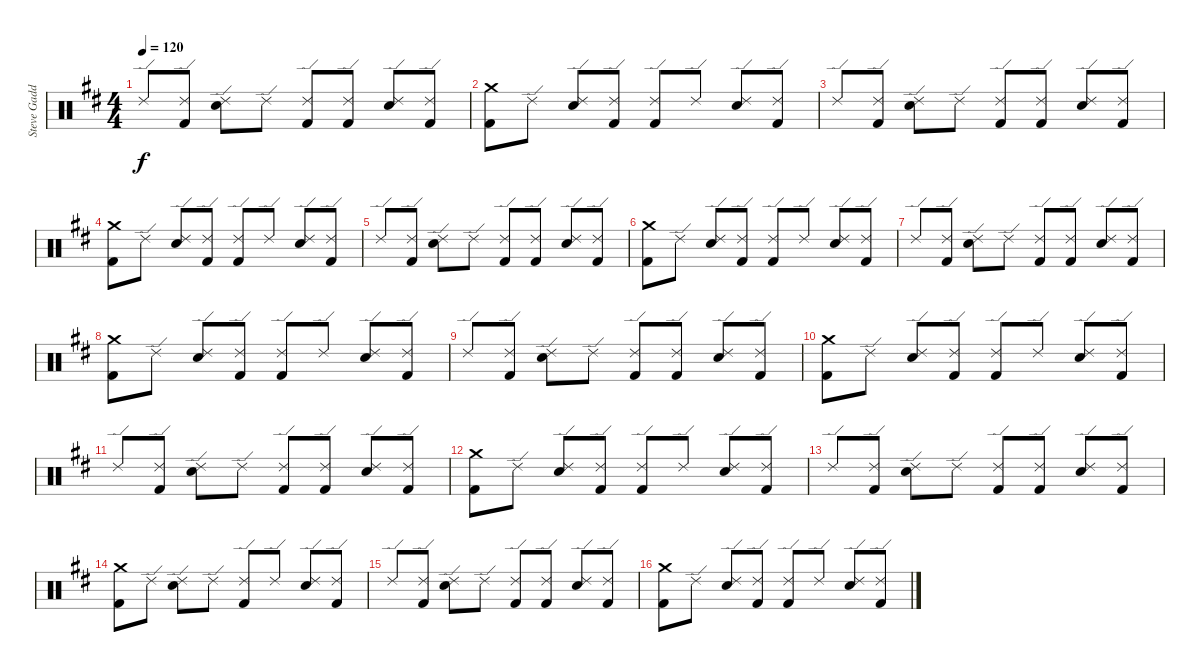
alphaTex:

\track ("Steve Gadd Drums" "Steve Gadd") {instrument percussion}
\staff {score}
\articulation defaults
\ts (4 4)
\tempo 120
\clef neutral
\ks d "Ride (edge) 2".8{dy f}
("Ride (edge) 2" "Kick (hit) 2").8 ("Ride (edge) 2" "Snare (hit) 2").8 "Ride (edge) 2".8 ("Ride (edge) 2" "Kick (hit) 2").8 ("Ride (edge) 2" "Kick (hit) 2").8 ("Ride (edge) 2" "Snare (hit) 2").8 ("Ride (edge) 2" "Kick (hit) 2").8 |
("Crash medium (hit)" "Kick (hit) 2").8 "Ride (edge) 2".8 ("Ride (edge) 2" "Snare (hit) 2").8 ("Ride (edge) 2" "Kick (hit) 2").8 ("Ride (edge) 2" "Kick (hit) 2").8 "Ride (edge) 2".8 ("Ride (edge) 2" "Snare (hit) 2").8 ("Ride (edge) 2" "Kick (hit) 2").8 |
"Ride (edge) 2".8 ("Ride (edge) 2" "Kick (hit) 2").8 ("Ride (edge) 2" "Snare (hit) 2").8 "Ride (edge) 2".8 ("Ride (edge) 2" "Kick (hit) 2").8 ("Ride (edge) 2" "Kick (hit) 2").8 ("Ride (edge) 2" "Snare (hit) 2").8 ("Ride (edge) 2" "Kick (hit) 2").8 |
("Crash medium (hit)" "Kick (hit) 2").8 "Ride (edge) 2".8 ("Ride (edge) 2" "Snare (hit) 2").8 ("Ride (edge) 2" "Kick (hit) 2").8 ("Ride (edge) 2" "Kick (hit) 2").8 "Ride (edge) 2".8 ("Ride (edge) 2" "Snare (hit) 2").8 ("Ride (edge) 2" "Kick (hit) 2").8 |
"Ride (edge) 2".8 ("Ride (edge) 2" "Kick (hit) 2").8 ("Ride (edge) 2" "Snare (hit) 2").8 "Ride (edge) 2".8 ("Ride (edge) 2" "Kick (hit) 2").8 ("Ride (edge) 2" "Kick (hit) 2").8 ("Ride (edge) 2" "Snare (hit) 2").8 ("Ride (edge) 2" "Kick (hit) 2").8 |
("Crash medium (hit)" "Kick (hit) 2").8 "Ride (edge) 2".8 ("Ride (edge) 2" "Snare (hit) 2").8 ("Ride (edge) 2" "Kick (hit) 2").8 ("Ride (edge) 2" "Kick (hit) 2").8 "Ride (edge) 2".8 ("Ride (edge) 2" "Snare (hit) 2").8 ("Ride (edge) 2" "Kick (hit) 2").8 |
"Ride (edge) 2".8 ("Ride (edge) 2" "Kick (hit) 2").8 ("Ride (edge) 2" "Snare (hit) 2").8 "Ride (edge) 2".8 ("Ride (edge) 2" "Kick (hit) 2").8 ("Ride (edge) 2" "Kick (hit) 2").8 ("Ride (edge) 2" "Snare (hit) 2").8 ("Ride (edge) 2" "Kick (hit) 2").8 |
("Crash medium (hit)" "Kick (hit) 2").8 "Ride (edge) 2".8 ("Ride (edge) 2" "Snare (hit) 2").8 ("Ride (edge) 2" "Kick (hit) 2").8 ("Ride (edge) 2" "Kick (hit) 2").8 "Ride (edge) 2".8 ("Ride (edge) 2" "Snare (hit) 2").8 ("Ride (edge) 2" "Kick (hit) 2").8 |
"Ride (edge) 2".8 ("Ride (edge) 2" "Kick (hit) 2").8 ("Ride (edge) 2" "Snare (hit) 2").8 "Ride (edge) 2".8 ("Ride (edge) 2" "Kick (hit) 2").8 ("Ride (edge) 2" "Kick (hit) 2").8 ("Ride (edge) 2" "Snare (hit) 2").8 ("Ride (edge) 2" "Kick (hit) 2").8 |
("Crash medium (hit)" "Kick (hit) 2").8 "Ride (edge) 2".8 ("Ride (edge) 2" "Snare (hit) 2").8 ("Ride (edge) 2" "Kick (hit) 2").8 ("Ride (edge) 2" "Kick (hit) 2").8 "Ride (edge) 2".8 ("Ride (edge) 2" "Snare (hit) 2").8 ("Ride (edge) 2" "Kick (hit) 2").8 |
"Ride (edge) 2".8 ("Ride (edge) 2" "Kick (hit) 2").8 ("Ride (edge) 2" "Snare (hit) 2").8 "Ride (edge) 2".8 ("Ride (edge) 2" "Kick (hit) 2").8 ("Ride (edge) 2" "Kick (hit) 2").8 ("Ride (edge) 2" "Snare (hit) 2").8 ("Ride (edge) 2" "Kick (hit) 2").8 |
("Crash medium (hit)" "Kick (hit) 2").8 "Ride (edge) 2".8 ("Ride (edge) 2" "Snare (hit) 2").8 ("Ride (edge) 2" "Kick (hit) 2").8 ("Ride (edge) 2" "Kick (hit) 2").8 "Ride (edge) 2".8 ("Ride (edge) 2" "Snare (hit) 2").8 ("Ride (edge) 2" "Kick (hit) 2").8 |
"Ride (edge) 2".8 ("Ride (edge) 2" "Kick (hit) 2").8 ("Ride (edge) 2" "Snare (hit) 2").8 "Ride (edge) 2".8 ("Ride (edge) 2" "Kick (hit) 2").8 ("Ride (edge) 2" "Kick (hit) 2").8 ("Ride (edge) 2" "Snare (hit) 2").8 ("Ride (edge) 2" "Kick (hit) 2").8 |
("Crash medium (hit)" "Kick (hit) 2").8 "Ride (edge) 2".8 ("Ride (edge) 2" "Snare (hit) 2").8 "Ride (edge) 2".8 ("Ride (edge) 2" "Kick (hit) 2").8 "Ride (edge) 2".8 ("Ride (edge) 2" "Snare (hit) 2").8 ("Ride (edge) 2" "Kick (hit) 2").8 |
"Ride (edge) 2".8 ("Ride (edge) 2" "Kick (hit) 2").8 ("Ride (edge) 2" "Snare (hit) 2").8 "Ride (edge) 2".8 ("Ride (edge) 2" "Kick (hit) 2").8 ("Ride (edge) 2" "Kick (hit) 2").8 ("Ride (edge) 2" "Snare (hit) 2").8 ("Ride (edge) 2" "Kick (hit) 2").8 |
("Crash medium (hit)" "Kick (hit) 2").8 "Ride (edge) 2".8 ("Ride (edge) 2" "Snare (hit) 2").8 ("Ride (edge) 2" "Kick (hit) 2").8 ("Ride (edge) 2" "Kick (hit) 2").8 "Ride (edge) 2".8 ("Ride (edge) 2" "Snare (hit) 2").8 ("Ride (edge) 2" "Kick (hit) 2").8
